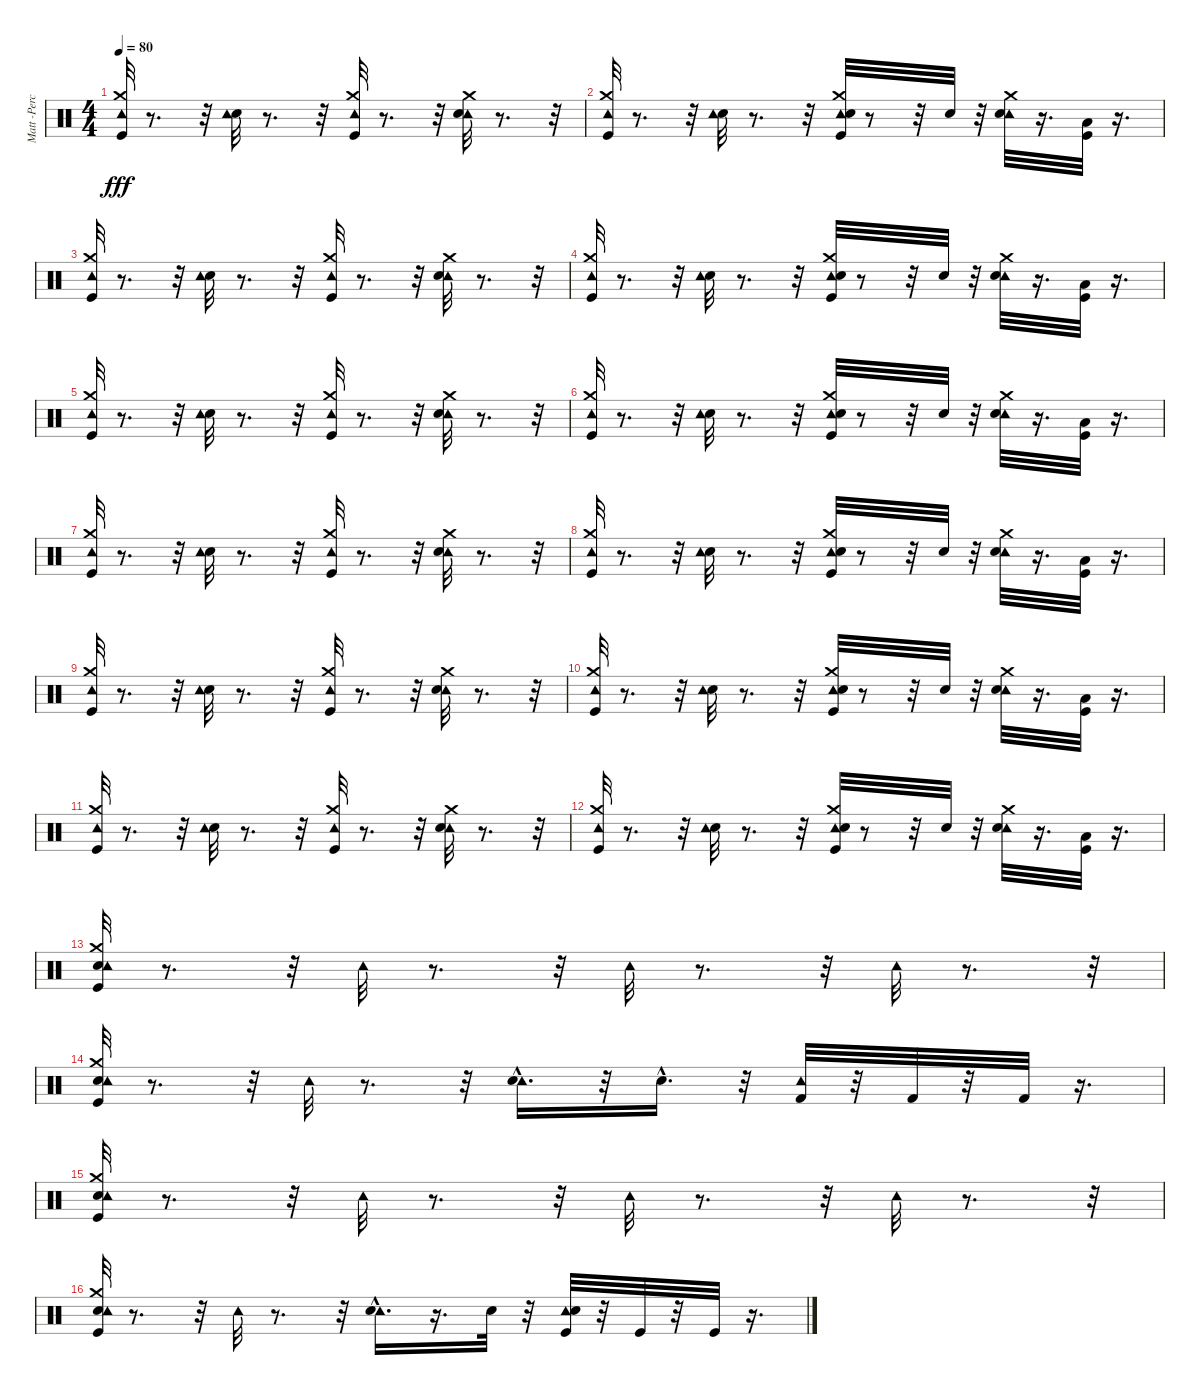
\track ("Matt -Percussion-" "Matt -Perc") {instrument percussion}
\staff {score}
\articulation defaults
\ts (4 4)
\tempo 80
\clef neutral
\ks c
("Kick (hit)" "Crash medium (hit)" "Tambourine (hit)").32{dy fff} r.8{d} r.32 ("Snare (hit) 2" "Tambourine (hit)").32 r.8{d} r.32 ("Tambourine (hit)" "Crash medium (hit)" "Kick (hit)").32 r.8{d} r.32 ("Tambourine (hit)" "Crash medium (hit)" "Snare (hit) 2").32 r.8{d} r.32 |
("Kick (hit)" "Crash medium (hit)" "Tambourine (hit)").32 r.8{d} r.32 ("Snare (hit) 2" "Tambourine (hit)").32 r.8{d} r.32 ("Tambourine (hit)" "Crash medium (hit)" "Kick (hit)" "Snare (hit) 2").32 r.8 r.32 "Snare (hit) 2".32 r.32 ("Tambourine (hit)" "Crash medium (hit)" "Snare (hit) 2").32 r.16{d} ("Kick (hit)" "Low Floor Tom (hit)").32 r.16{d} |
("Kick (hit)" "Crash medium (hit)" "Tambourine (hit)").32 r.8{d} r.32 ("Snare (hit) 2" "Tambourine (hit)").32 r.8{d} r.32 ("Tambourine (hit)" "Crash medium (hit)" "Kick (hit)").32 r.8{d} r.32 ("Tambourine (hit)" "Crash medium (hit)" "Snare (hit) 2").32 r.8{d} r.32 |
("Kick (hit)" "Crash medium (hit)" "Tambourine (hit)").32 r.8{d} r.32 ("Snare (hit) 2" "Tambourine (hit)").32 r.8{d} r.32 ("Tambourine (hit)" "Crash medium (hit)" "Kick (hit)" "Snare (hit) 2").32 r.8 r.32 "Snare (hit) 2".32 r.32 ("Tambourine (hit)" "Crash medium (hit)" "Snare (hit) 2").32 r.16{d} ("Kick (hit)" "Low Floor Tom (hit)").32 r.16{d} |
("Kick (hit)" "Crash medium (hit)" "Tambourine (hit)").32 r.8{d} r.32 ("Snare (hit) 2" "Tambourine (hit)").32 r.8{d} r.32 ("Tambourine (hit)" "Crash medium (hit)" "Kick (hit)").32 r.8{d} r.32 ("Tambourine (hit)" "Crash medium (hit)" "Snare (hit) 2").32 r.8{d} r.32 |
("Kick (hit)" "Crash medium (hit)" "Tambourine (hit)").32 r.8{d} r.32 ("Snare (hit) 2" "Tambourine (hit)").32 r.8{d} r.32 ("Tambourine (hit)" "Crash medium (hit)" "Kick (hit)" "Snare (hit) 2").32 r.8 r.32 "Snare (hit) 2".32 r.32 ("Tambourine (hit)" "Crash medium (hit)" "Snare (hit) 2").32 r.16{d} ("Kick (hit)" "Low Floor Tom (hit)").32 r.16{d} |
("Kick (hit)" "Crash medium (hit)" "Tambourine (hit)").32 r.8{d} r.32 ("Snare (hit) 2" "Tambourine (hit)").32 r.8{d} r.32 ("Tambourine (hit)" "Crash medium (hit)" "Kick (hit)").32 r.8{d} r.32 ("Tambourine (hit)" "Crash medium (hit)" "Snare (hit) 2").32 r.8{d} r.32 |
("Kick (hit)" "Crash medium (hit)" "Tambourine (hit)").32 r.8{d} r.32 ("Snare (hit) 2" "Tambourine (hit)").32 r.8{d} r.32 ("Tambourine (hit)" "Crash medium (hit)" "Kick (hit)" "Snare (hit) 2").32 r.8 r.32 "Snare (hit) 2".32 r.32 ("Tambourine (hit)" "Crash medium (hit)" "Snare (hit) 2").32 r.16{d} ("Kick (hit)" "Low Floor Tom (hit)").32 r.16{d} |
("Kick (hit)" "Crash medium (hit)" "Tambourine (hit)").32 r.8{d} r.32 ("Snare (hit) 2" "Tambourine (hit)").32 r.8{d} r.32 ("Tambourine (hit)" "Crash medium (hit)" "Kick (hit)").32 r.8{d} r.32 ("Tambourine (hit)" "Crash medium (hit)" "Snare (hit) 2").32 r.8{d} r.32 |
("Kick (hit)" "Crash medium (hit)" "Tambourine (hit)").32 r.8{d} r.32 ("Snare (hit) 2" "Tambourine (hit)").32 r.8{d} r.32 ("Tambourine (hit)" "Crash medium (hit)" "Kick (hit)" "Snare (hit) 2").32 r.8 r.32 "Snare (hit) 2".32 r.32 ("Tambourine (hit)" "Crash medium (hit)" "Snare (hit) 2").32 r.16{d} ("Kick (hit)" "Low Floor Tom (hit)").32 r.16{d} |
("Kick (hit)" "Crash medium (hit)" "Tambourine (hit)").32 r.8{d} r.32 ("Snare (hit) 2" "Tambourine (hit)").32 r.8{d} r.32 ("Tambourine (hit)" "Crash medium (hit)" "Kick (hit)").32 r.8{d} r.32 ("Tambourine (hit)" "Crash medium (hit)" "Snare (hit) 2").32 r.8{d} r.32 |
("Kick (hit)" "Crash medium (hit)" "Tambourine (hit)").32 r.8{d} r.32 ("Snare (hit) 2" "Tambourine (hit)").32 r.8{d} r.32 ("Tambourine (hit)" "Crash medium (hit)" "Kick (hit)" "Snare (hit) 2").32 r.8 r.32 "Snare (hit) 2".32 r.32 ("Tambourine (hit)" "Crash medium (hit)" "Snare (hit) 2").32 r.16{d} ("Kick (hit)" "Low Floor Tom (hit)").32 r.16{d} |
("Kick (hit)" "Snare (hit) 2" "Crash medium (hit)" "Tambourine (hit)").32 r.8{d} r.32 "Tambourine (hit)".32 r.8{d} r.32 "Tambourine (hit)".32 r.8{d} r.32 "Tambourine (hit)".32 r.8{d} r.32 |
("Kick (hit)" "Snare (hit) 2" "Crash medium (hit)" "Tambourine (hit)").32 r.8{d} r.32 "Tambourine (hit)".32 r.8{d} r.32 ("Tambourine (hit)" "Snare (hit) 2"{hac}).16{d} r.32 "Snare (hit) 2"{hac}.16{d} r.32 ("Tambourine (hit)" "Kick (hit) 2").32 r.32 "Kick (hit) 2".32 r.32 "Kick (hit) 2".32 r.16{d} |
("Kick (hit)" "Snare (hit) 2" "Crash medium (hit)" "Tambourine (hit)").32 r.8{d} r.32 "Tambourine (hit)".32 r.8{d} r.32 "Tambourine (hit)".32 r.8{d} r.32 "Tambourine (hit)".32 r.8{d} r.32 |
("Kick (hit)" "Snare (hit) 2" "Crash medium (hit)" "Tambourine (hit)").32 r.8{d} r.32 "Tambourine (hit)".32 r.8{d} r.32 ("Tambourine (hit)" "Snare (hit) 2"{hac}).16{d} r.16{d} "Snare (hit) 2".32 r.32 ("Tambourine (hit)" "Snare (hit) 2" "Kick (hit)").32 r.32 "Kick (hit)".32 r.32 "Kick (hit)".32 r.16{d}
